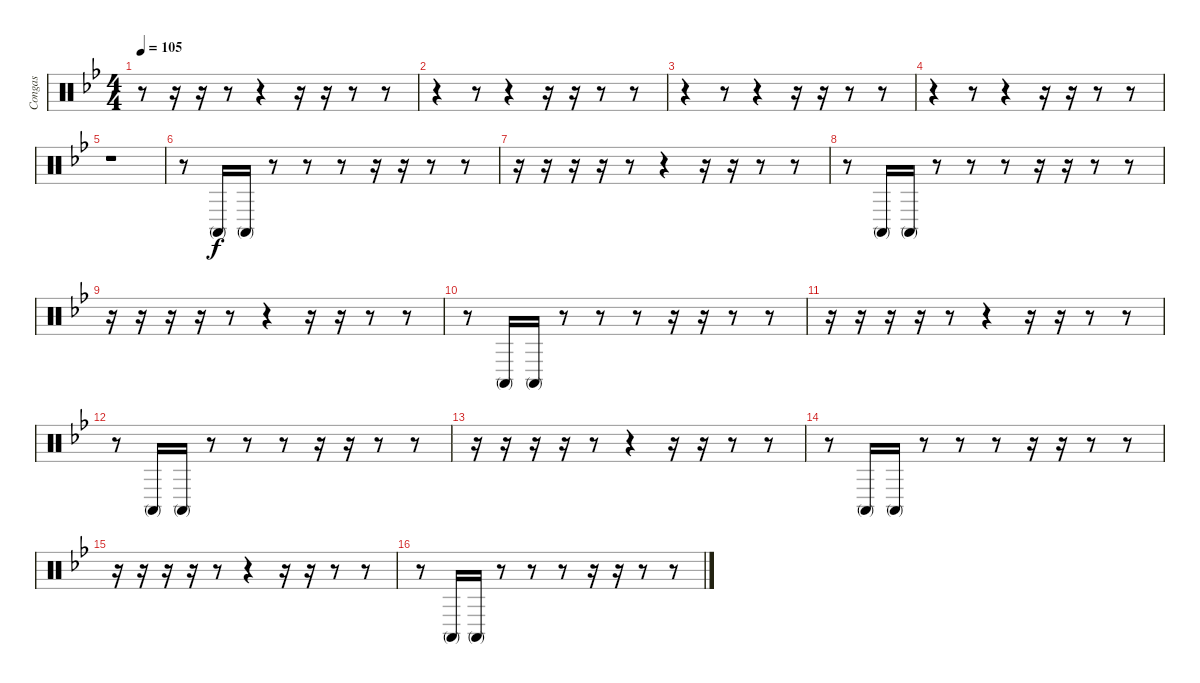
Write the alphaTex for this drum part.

\track ("Congas" "Congas") {instrument percussion}
\staff {score}
\articulation defaults
\ts (4 4)
\tempo 105
\clef neutral
\ks gminor
r.8{dy f} r.16 r.16 r.8 r.4 r.16 r.16 r.8 r.8 |
r.4 r.8 r.4 r.16 r.16 r.8 r.8 |
r.4 r.8 r.4 r.16 r.16 r.8 r.8 |
r.4 r.8 r.4 r.16 r.16 r.8 r.8 |
r.1 |
r.8 "Conga high (mute)".16 "Conga high (mute)".16 r.8 r.8 r.8 r.16 r.16 r.8 r.8 |
r.16 r.16 r.16 r.16 r.8 r.4 r.16 r.16 r.8 r.8 |
r.8 "Conga high (mute)".16 "Conga high (mute)".16 r.8 r.8 r.8 r.16 r.16 r.8 r.8 |
r.16 r.16 r.16 r.16 r.8 r.4 r.16 r.16 r.8 r.8 |
r.8 "Conga high (mute)".16 "Conga high (mute)".16 r.8 r.8 r.8 r.16 r.16 r.8 r.8 |
r.16 r.16 r.16 r.16 r.8 r.4 r.16 r.16 r.8 r.8 |
r.8 "Conga high (mute)".16 "Conga high (mute)".16 r.8 r.8 r.8 r.16 r.16 r.8 r.8 |
r.16 r.16 r.16 r.16 r.8 r.4 r.16 r.16 r.8 r.8 |
r.8 "Conga high (mute)".16 "Conga high (mute)".16 r.8 r.8 r.8 r.16 r.16 r.8 r.8 |
r.16 r.16 r.16 r.16 r.8 r.4 r.16 r.16 r.8 r.8 |
r.8 "Conga high (mute)".16 "Conga high (mute)".16 r.8 r.8 r.8 r.16 r.16 r.8 r.8
